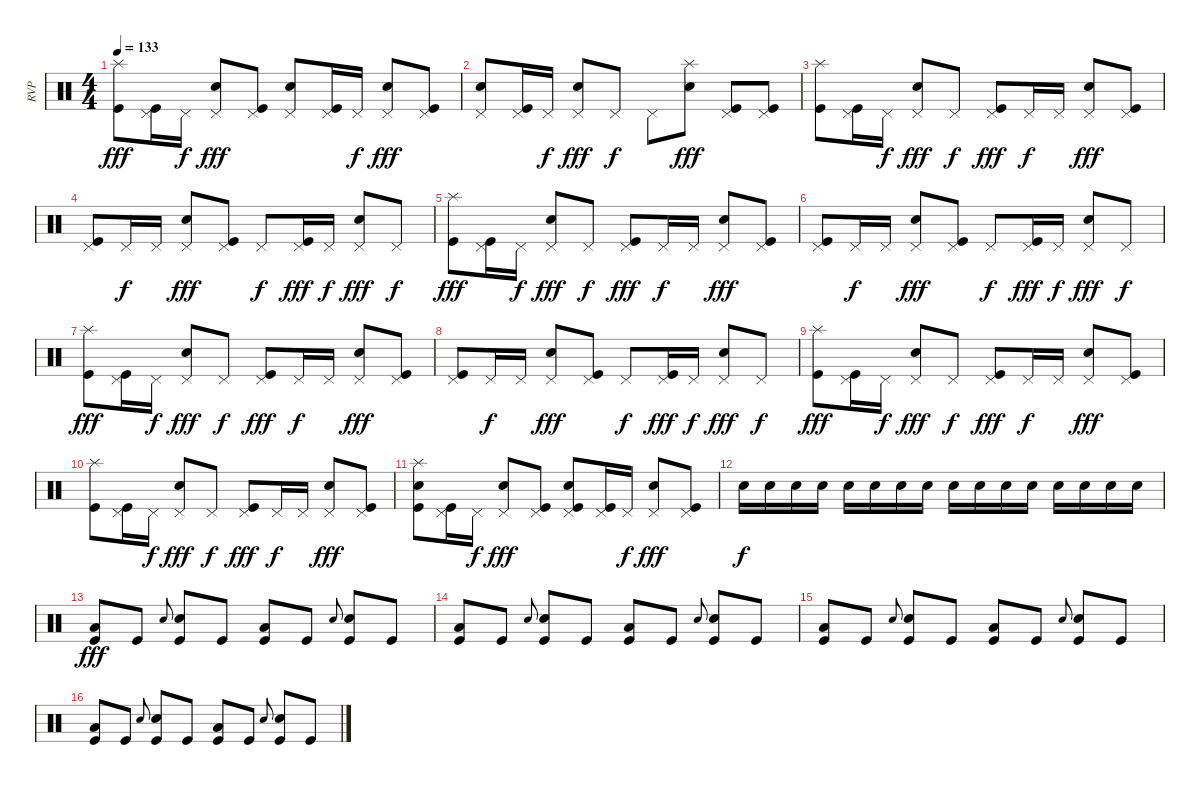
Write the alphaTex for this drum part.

\track ("RVP" "RVP") {instrument percussion}
\staff {score}
\articulation defaults
\ts (4 4)
\tempo 133
\clef neutral
\ks c
("Splash (hit)" "Kick (hit)").8{txt "" dy fff} ("Pedal Hi-Hat (hit)" "Kick (hit)").16{txt ""} "Pedal Hi-Hat (hit)".16{txt "" dy f} ("Snare (hit) 2" "Pedal Hi-Hat (hit)").8{txt "" dy fff} ("Pedal Hi-Hat (hit)" "Kick (hit)").8{txt ""} ("Snare (hit) 2" "Pedal Hi-Hat (hit)").8{txt ""} ("Pedal Hi-Hat (hit)" "Kick (hit)").16{txt ""} "Pedal Hi-Hat (hit)".16{txt "" dy f} ("Snare (hit) 2" "Pedal Hi-Hat (hit)").8{txt "" dy fff} ("Pedal Hi-Hat (hit)" "Kick (hit)").8{txt ""} |
("Snare (hit) 2" "Pedal Hi-Hat (hit)").8{txt ""} ("Pedal Hi-Hat (hit)" "Kick (hit)").16{txt ""} "Pedal Hi-Hat (hit)".16{txt "" dy f} ("Snare (hit) 2" "Pedal Hi-Hat (hit)").8{txt "" dy fff} "Pedal Hi-Hat (hit)".8{txt "" dy f} "Pedal Hi-Hat (hit)".8{txt ""} ("Snare (hit) 2" "Splash (hit)").8{txt "" dy fff} ("Pedal Hi-Hat (hit)" "Kick (hit)").8{txt ""} ("Pedal Hi-Hat (hit)" "Kick (hit)").8{txt ""} |
("Splash (hit)" "Kick (hit)").8{txt ""} ("Pedal Hi-Hat (hit)" "Kick (hit)").16{txt ""} "Pedal Hi-Hat (hit)".16{txt "" dy f} ("Snare (hit) 2" "Pedal Hi-Hat (hit)").8{txt "" dy fff} "Pedal Hi-Hat (hit)".8{txt "" dy f} ("Pedal Hi-Hat (hit)" "Kick (hit)").8{txt "" dy fff} "Pedal Hi-Hat (hit)".16{txt "" dy f} "Pedal Hi-Hat (hit)".16{txt ""} ("Snare (hit) 2" "Pedal Hi-Hat (hit)").8{txt "" dy fff} ("Pedal Hi-Hat (hit)" "Kick (hit)").8{txt ""} |
("Pedal Hi-Hat (hit)" "Kick (hit)").8{txt ""} "Pedal Hi-Hat (hit)".16{txt "" dy f} "Pedal Hi-Hat (hit)".16{txt ""} ("Snare (hit) 2" "Pedal Hi-Hat (hit)").8{txt "" dy fff} ("Pedal Hi-Hat (hit)" "Kick (hit)").8{txt ""} "Pedal Hi-Hat (hit)".8{txt "" dy f} ("Pedal Hi-Hat (hit)" "Kick (hit)").16{txt "" dy fff} "Pedal Hi-Hat (hit)".16{txt "" dy f} ("Snare (hit) 2" "Pedal Hi-Hat (hit)").8{txt "" dy fff} "Pedal Hi-Hat (hit)".8{txt "" dy f} |
("Splash (hit)" "Kick (hit)").8{txt "" dy fff} ("Pedal Hi-Hat (hit)" "Kick (hit)").16{txt ""} "Pedal Hi-Hat (hit)".16{txt "" dy f} ("Snare (hit) 2" "Pedal Hi-Hat (hit)").8{txt "" dy fff} "Pedal Hi-Hat (hit)".8{txt "" dy f} ("Pedal Hi-Hat (hit)" "Kick (hit)").8{txt "" dy fff} "Pedal Hi-Hat (hit)".16{txt "" dy f} "Pedal Hi-Hat (hit)".16{txt ""} ("Snare (hit) 2" "Pedal Hi-Hat (hit)").8{txt "" dy fff} ("Pedal Hi-Hat (hit)" "Kick (hit)").8{txt ""} |
("Pedal Hi-Hat (hit)" "Kick (hit)").8{txt ""} "Pedal Hi-Hat (hit)".16{txt "" dy f} "Pedal Hi-Hat (hit)".16{txt ""} ("Snare (hit) 2" "Pedal Hi-Hat (hit)").8{txt "" dy fff} ("Pedal Hi-Hat (hit)" "Kick (hit)").8{txt ""} "Pedal Hi-Hat (hit)".8{txt "" dy f} ("Pedal Hi-Hat (hit)" "Kick (hit)").16{txt "" dy fff} "Pedal Hi-Hat (hit)".16{txt "" dy f} ("Snare (hit) 2" "Pedal Hi-Hat (hit)").8{txt "" dy fff} "Pedal Hi-Hat (hit)".8{txt "" dy f} |
("Splash (hit)" "Kick (hit)").8{txt "" dy fff} ("Pedal Hi-Hat (hit)" "Kick (hit)").16{txt ""} "Pedal Hi-Hat (hit)".16{txt "" dy f} ("Snare (hit) 2" "Pedal Hi-Hat (hit)").8{txt "" dy fff} "Pedal Hi-Hat (hit)".8{txt "" dy f} ("Pedal Hi-Hat (hit)" "Kick (hit)").8{txt "" dy fff} "Pedal Hi-Hat (hit)".16{txt "" dy f} "Pedal Hi-Hat (hit)".16{txt ""} ("Snare (hit) 2" "Pedal Hi-Hat (hit)").8{txt "" dy fff} ("Pedal Hi-Hat (hit)" "Kick (hit)").8{txt ""} |
("Pedal Hi-Hat (hit)" "Kick (hit)").8{txt ""} "Pedal Hi-Hat (hit)".16{txt "" dy f} "Pedal Hi-Hat (hit)".16{txt ""} ("Snare (hit) 2" "Pedal Hi-Hat (hit)").8{txt "" dy fff} ("Pedal Hi-Hat (hit)" "Kick (hit)").8{txt ""} "Pedal Hi-Hat (hit)".8{txt "" dy f} ("Pedal Hi-Hat (hit)" "Kick (hit)").16{txt "" dy fff} "Pedal Hi-Hat (hit)".16{txt "" dy f} ("Snare (hit) 2" "Pedal Hi-Hat (hit)").8{txt "" dy fff} "Pedal Hi-Hat (hit)".8{txt "" dy f} |
("Splash (hit)" "Kick (hit)").8{txt "" dy fff} ("Pedal Hi-Hat (hit)" "Kick (hit)").16{txt ""} "Pedal Hi-Hat (hit)".16{txt "" dy f} ("Snare (hit) 2" "Pedal Hi-Hat (hit)").8{txt "" dy fff} "Pedal Hi-Hat (hit)".8{txt "" dy f} ("Pedal Hi-Hat (hit)" "Kick (hit)").8{txt "" dy fff} "Pedal Hi-Hat (hit)".16{txt "" dy f} "Pedal Hi-Hat (hit)".16{txt ""} ("Snare (hit) 2" "Pedal Hi-Hat (hit)").8{txt "" dy fff} ("Pedal Hi-Hat (hit)" "Kick (hit)").8{txt ""} |
("Splash (hit)" "Kick (hit)").8{txt ""} ("Pedal Hi-Hat (hit)" "Kick (hit)").16{txt ""} "Pedal Hi-Hat (hit)".16{txt "" dy f} ("Snare (hit) 2" "Pedal Hi-Hat (hit)").8{txt "" dy fff} "Pedal Hi-Hat (hit)".8{txt "" dy f} ("Pedal Hi-Hat (hit)" "Kick (hit)").8{txt "" dy fff} "Pedal Hi-Hat (hit)".16{txt "" dy f} "Pedal Hi-Hat (hit)".16{txt ""} ("Snare (hit) 2" "Pedal Hi-Hat (hit)").8{txt "" dy fff} ("Pedal Hi-Hat (hit)" "Kick (hit)").8{txt ""} |
("Snare (hit) 2" "Splash (hit)" "Kick (hit)").8{txt ""} ("Pedal Hi-Hat (hit)" "Kick (hit)").16{txt ""} "Pedal Hi-Hat (hit)".16{txt "" dy f} ("Snare (hit) 2" "Pedal Hi-Hat (hit)").8{txt "" dy fff} ("Pedal Hi-Hat (hit)" "Kick (hit)").8{txt ""} ("Snare (hit) 2" "Pedal Hi-Hat (hit)" "Kick (hit)").8{txt ""} ("Pedal Hi-Hat (hit)" "Kick (hit)").16{txt ""} "Pedal Hi-Hat (hit)".16{txt "" dy f} ("Snare (hit) 2" "Pedal Hi-Hat (hit)").8{txt "" dy fff} ("Pedal Hi-Hat (hit)" "Kick (hit)").8{txt ""} |
"Snare (hit) 2".16{txt "" dy f} "Snare (hit) 2".16{txt ""} "Snare (hit) 2".16{txt ""} "Snare (hit) 2".16{txt ""} "Snare (hit) 2".16{txt ""} "Snare (hit) 2".16{txt ""} "Snare (hit) 2".16{txt ""} "Snare (hit) 2".16{txt ""} "Snare (hit) 2".16{txt ""} "Snare (hit) 2".16{txt ""} "Snare (hit) 2".16{txt ""} "Snare (hit) 2".16{txt ""} "Snare (hit) 2".16{txt ""} "Snare (hit) 2".16{txt ""} "Snare (hit) 2".16{txt ""} "Snare (hit) 2".16{txt ""} |
("Low Floor Tom (hit)" "Kick (hit)").8{txt "" dy fff} "Kick (hit)".8{txt ""} "Snare (hit) 2".8{gr onbeat} ("Snare (hit) 2" "Kick (hit)").8{txt ""} "Kick (hit)".8{txt ""} ("Low Floor Tom (hit)" "Kick (hit)").8{txt ""} "Kick (hit)".8{txt ""} "Snare (hit) 2".8{gr onbeat} ("Snare (hit) 2" "Kick (hit)").8{txt ""} "Kick (hit)".8{txt ""} |
("Low Floor Tom (hit)" "Kick (hit)").8{txt ""} "Kick (hit)".8{txt ""} "Snare (hit) 2".8{gr onbeat} ("Snare (hit) 2" "Kick (hit)").8{txt ""} "Kick (hit)".8{txt ""} ("Low Floor Tom (hit)" "Kick (hit)").8{txt ""} "Kick (hit)".8{txt ""} "Snare (hit) 2".8{gr onbeat} ("Snare (hit) 2" "Kick (hit)").8{txt ""} "Kick (hit)".8{txt ""} |
("Low Floor Tom (hit)" "Kick (hit)").8{txt ""} "Kick (hit)".8{txt ""} "Snare (hit) 2".8{gr onbeat} ("Snare (hit) 2" "Kick (hit)").8{txt ""} "Kick (hit)".8{txt ""} ("Low Floor Tom (hit)" "Kick (hit)").8{txt ""} "Kick (hit)".8{txt ""} "Snare (hit) 2".8{gr onbeat} ("Snare (hit) 2" "Kick (hit)").8{txt ""} "Kick (hit)".8{txt ""} |
("Low Floor Tom (hit)" "Kick (hit)").8{txt ""} "Kick (hit)".8{txt ""} "Snare (hit) 2".8{gr onbeat} ("Snare (hit) 2" "Kick (hit)").8{txt ""} "Kick (hit)".8{txt ""} ("Low Floor Tom (hit)" "Kick (hit)").8{txt ""} "Kick (hit)".8{txt ""} "Snare (hit) 2".8{gr onbeat} ("Snare (hit) 2" "Kick (hit)").8{txt ""} "Kick (hit)".8{txt ""}
